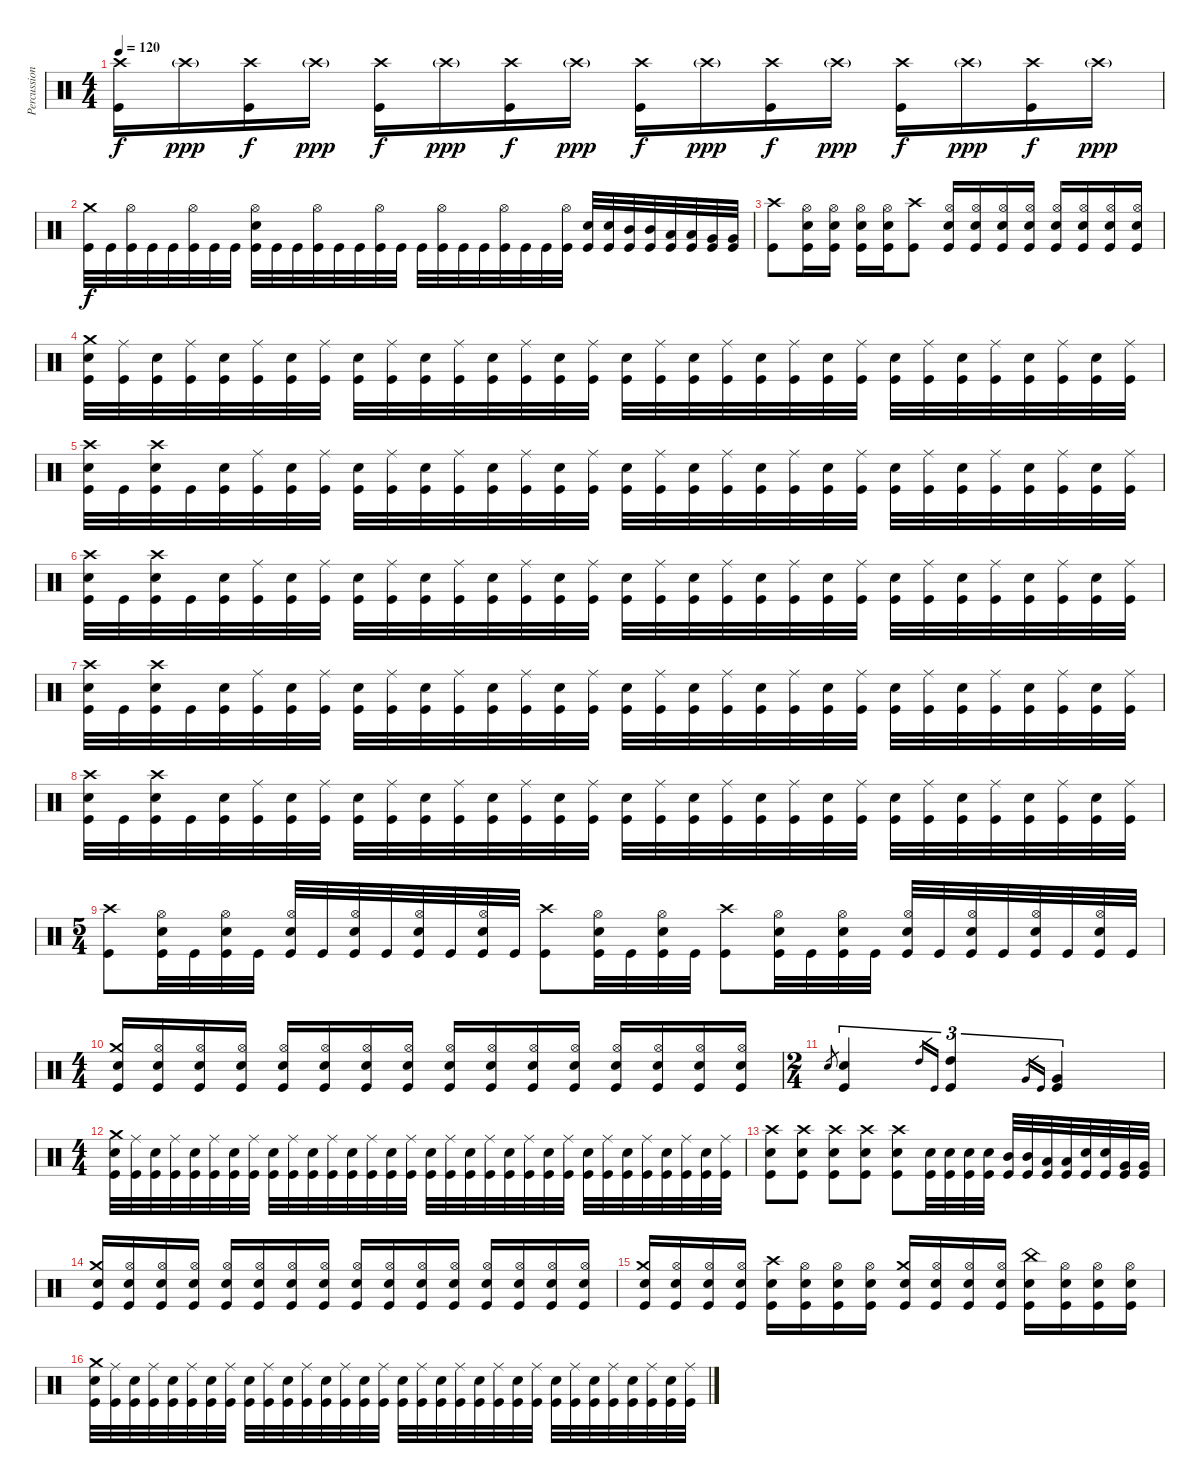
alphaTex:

\track ("Percussion" "Percussion") {instrument percussion}
\staff {score}
\articulation defaults
\ts (4 4)
\tempo 120
\clef neutral
\ks c
("Crash high (hit)" "Kick (hit)").16{dy f} "Crash high (hit)"{g}.16{dy ppp} ("Crash high (hit)" "Kick (hit)").16{dy f} "Crash high (hit)"{g}.16{dy ppp} ("Crash high (hit)" "Kick (hit)").16{dy f} "Crash high (hit)"{g}.16{dy ppp} ("Crash high (hit)" "Kick (hit)").16{dy f} "Crash high (hit)"{g}.16{dy ppp} ("Crash high (hit)" "Kick (hit)").16{dy f} "Crash high (hit)"{g}.16{dy ppp} ("Crash high (hit)" "Kick (hit)").16{dy f} "Crash high (hit)"{g}.16{dy ppp} ("Crash high (hit)" "Kick (hit)").16{dy f} "Crash high (hit)"{g}.16{dy ppp} ("Crash high (hit)" "Kick (hit)").16{dy f} "Crash high (hit)"{g}.16{dy ppp} |
("Crash medium (hit)" "Kick (hit)").32{dy f} "Kick (hit)".32 ("Hi-Hat (open)" "Kick (hit)").32 "Kick (hit)".32 "Kick (hit)".32 ("Hi-Hat (open)" "Kick (hit)").32 "Kick (hit)".32 "Kick (hit)".32 ("Hi-Hat (open)" "Electric Snare (hit)" "Kick (hit)").32 "Kick (hit)".32 "Kick (hit)".32 ("Hi-Hat (open)" "Kick (hit)").32 "Kick (hit)".32 "Kick (hit)".32 ("Hi-Hat (open)" "Kick (hit)").32 "Kick (hit)".32 "Kick (hit)".32 ("Hi-Hat (open)" "Kick (hit)").32 "Kick (hit)".32 "Kick (hit)".32 ("Hi-Hat (open)" "Kick (hit)").32 "Kick (hit)".32 "Kick (hit)".32 ("Hi-Hat (open)" "Kick (hit)").32 ("Electric Snare (hit)" "Kick (hit)").32 ("Electric Snare (hit)" "Kick (hit)").32 ("Mid Tom (hit)" "Kick (hit)").32 ("Mid Tom (hit)" "Kick (hit)").32 ("Low Tom (hit)" "Kick (hit)").32 ("Low Tom (hit)" "Kick (hit)").32 ("Very Low Tom (hit)" "Kick (hit)").32 ("Very Low Tom (hit)" "Kick (hit)").32 |
("Crash high (hit)" "Kick (hit)").8 ("Hi-Hat (open)" "Electric Snare (hit)" "Kick (hit)").16 ("Hi-Hat (open)" "Electric Snare (hit)" "Kick (hit)").16 ("Hi-Hat (open)" "Electric Snare (hit)" "Kick (hit)").16 ("Hi-Hat (open)" "Electric Snare (hit)" "Kick (hit)").16 ("Crash high (hit)" "Kick (hit)").8 ("Hi-Hat (open)" "Electric Snare (hit)" "Kick (hit)").16 ("Hi-Hat (open)" "Electric Snare (hit)" "Kick (hit)").16 ("Hi-Hat (open)" "Electric Snare (hit)" "Kick (hit)").16 ("Hi-Hat (open)" "Electric Snare (hit)" "Kick (hit)").16 ("Hi-Hat (open)" "Electric Snare (hit)" "Kick (hit)").16 ("Hi-Hat (open)" "Electric Snare (hit)" "Kick (hit)").16 ("Hi-Hat (open)" "Electric Snare (hit)" "Kick (hit)").16 ("Hi-Hat (open)" "Electric Snare (hit)" "Kick (hit)").16 |
("Crash medium (hit)" "Electric Snare (hit)" "Kick (hit)").32 ("Ride (middle)" "Kick (hit)").32 ("Electric Snare (hit)" "Kick (hit)").32 ("Ride (middle)" "Kick (hit)").32 ("Electric Snare (hit)" "Kick (hit)").32 ("Ride (middle)" "Kick (hit)").32 ("Electric Snare (hit)" "Kick (hit)").32 ("Ride (middle)" "Kick (hit)").32 ("Electric Snare (hit)" "Kick (hit)").32 ("Ride (middle)" "Kick (hit)").32 ("Electric Snare (hit)" "Kick (hit)").32 ("Ride (middle)" "Kick (hit)").32 ("Electric Snare (hit)" "Kick (hit)").32 ("Ride (middle)" "Kick (hit)").32 ("Electric Snare (hit)" "Kick (hit)").32 ("Ride (middle)" "Kick (hit)").32 ("Electric Snare (hit)" "Kick (hit)").32 ("Ride (middle)" "Kick (hit)").32 ("Electric Snare (hit)" "Kick (hit)").32 ("Ride (middle)" "Kick (hit)").32 ("Electric Snare (hit)" "Kick (hit)").32 ("Ride (middle)" "Kick (hit)").32 ("Electric Snare (hit)" "Kick (hit)").32 ("Ride (middle)" "Kick (hit)").32 ("Electric Snare (hit)" "Kick (hit)").32 ("Ride (middle)" "Kick (hit)").32 ("Electric Snare (hit)" "Kick (hit)").32 ("Ride (middle)" "Kick (hit)").32 ("Electric Snare (hit)" "Kick (hit)").32 ("Ride (middle)" "Kick (hit)").32 ("Electric Snare (hit)" "Kick (hit)").32 ("Ride (middle)" "Kick (hit)").32 |
("Crash high (hit)" "Electric Snare (hit)" "Kick (hit)").32 "Kick (hit)".32 ("Crash high (hit)" "Electric Snare (hit)" "Kick (hit)").32 "Kick (hit)".32 ("Electric Snare (hit)" "Kick (hit)").32 ("Ride (middle)" "Kick (hit)").32 ("Electric Snare (hit)" "Kick (hit)").32 ("Ride (middle)" "Kick (hit)").32 ("Electric Snare (hit)" "Kick (hit)").32 ("Ride (middle)" "Kick (hit)").32 ("Electric Snare (hit)" "Kick (hit)").32 ("Ride (middle)" "Kick (hit)").32 ("Electric Snare (hit)" "Kick (hit)").32 ("Ride (middle)" "Kick (hit)").32 ("Electric Snare (hit)" "Kick (hit)").32 ("Ride (middle)" "Kick (hit)").32 ("Electric Snare (hit)" "Kick (hit)").32 ("Ride (middle)" "Kick (hit)").32 ("Electric Snare (hit)" "Kick (hit)").32 ("Ride (middle)" "Kick (hit)").32 ("Electric Snare (hit)" "Kick (hit)").32 ("Ride (middle)" "Kick (hit)").32 ("Electric Snare (hit)" "Kick (hit)").32 ("Ride (middle)" "Kick (hit)").32 ("Electric Snare (hit)" "Kick (hit)").32 ("Ride (middle)" "Kick (hit)").32 ("Electric Snare (hit)" "Kick (hit)").32 ("Ride (middle)" "Kick (hit)").32 ("Electric Snare (hit)" "Kick (hit)").32 ("Ride (middle)" "Kick (hit)").32 ("Electric Snare (hit)" "Kick (hit)").32 ("Ride (middle)" "Kick (hit)").32 |
("Crash high (hit)" "Electric Snare (hit)" "Kick (hit)").32 "Kick (hit)".32 ("Crash high (hit)" "Electric Snare (hit)" "Kick (hit)").32 "Kick (hit)".32 ("Electric Snare (hit)" "Kick (hit)").32 ("Ride (middle)" "Kick (hit)").32 ("Electric Snare (hit)" "Kick (hit)").32 ("Ride (middle)" "Kick (hit)").32 ("Electric Snare (hit)" "Kick (hit)").32 ("Ride (middle)" "Kick (hit)").32 ("Electric Snare (hit)" "Kick (hit)").32 ("Ride (middle)" "Kick (hit)").32 ("Electric Snare (hit)" "Kick (hit)").32 ("Ride (middle)" "Kick (hit)").32 ("Electric Snare (hit)" "Kick (hit)").32 ("Ride (middle)" "Kick (hit)").32 ("Electric Snare (hit)" "Kick (hit)").32 ("Ride (middle)" "Kick (hit)").32 ("Electric Snare (hit)" "Kick (hit)").32 ("Ride (middle)" "Kick (hit)").32 ("Electric Snare (hit)" "Kick (hit)").32 ("Ride (middle)" "Kick (hit)").32 ("Electric Snare (hit)" "Kick (hit)").32 ("Ride (middle)" "Kick (hit)").32 ("Electric Snare (hit)" "Kick (hit)").32 ("Ride (middle)" "Kick (hit)").32 ("Electric Snare (hit)" "Kick (hit)").32 ("Ride (middle)" "Kick (hit)").32 ("Electric Snare (hit)" "Kick (hit)").32 ("Ride (middle)" "Kick (hit)").32 ("Electric Snare (hit)" "Kick (hit)").32 ("Ride (middle)" "Kick (hit)").32 |
("Crash high (hit)" "Electric Snare (hit)" "Kick (hit)").32 "Kick (hit)".32 ("Crash high (hit)" "Electric Snare (hit)" "Kick (hit)").32 "Kick (hit)".32 ("Electric Snare (hit)" "Kick (hit)").32 ("Ride (middle)" "Kick (hit)").32 ("Electric Snare (hit)" "Kick (hit)").32 ("Ride (middle)" "Kick (hit)").32 ("Electric Snare (hit)" "Kick (hit)").32 ("Ride (middle)" "Kick (hit)").32 ("Electric Snare (hit)" "Kick (hit)").32 ("Ride (middle)" "Kick (hit)").32 ("Electric Snare (hit)" "Kick (hit)").32 ("Ride (middle)" "Kick (hit)").32 ("Electric Snare (hit)" "Kick (hit)").32 ("Ride (middle)" "Kick (hit)").32 ("Electric Snare (hit)" "Kick (hit)").32 ("Ride (middle)" "Kick (hit)").32 ("Electric Snare (hit)" "Kick (hit)").32 ("Ride (middle)" "Kick (hit)").32 ("Electric Snare (hit)" "Kick (hit)").32 ("Ride (middle)" "Kick (hit)").32 ("Electric Snare (hit)" "Kick (hit)").32 ("Ride (middle)" "Kick (hit)").32 ("Electric Snare (hit)" "Kick (hit)").32 ("Ride (middle)" "Kick (hit)").32 ("Electric Snare (hit)" "Kick (hit)").32 ("Ride (middle)" "Kick (hit)").32 ("Electric Snare (hit)" "Kick (hit)").32 ("Ride (middle)" "Kick (hit)").32 ("Electric Snare (hit)" "Kick (hit)").32 ("Ride (middle)" "Kick (hit)").32 |
("Crash high (hit)" "Electric Snare (hit)" "Kick (hit)").32 "Kick (hit)".32 ("Crash high (hit)" "Electric Snare (hit)" "Kick (hit)").32 "Kick (hit)".32 ("Electric Snare (hit)" "Kick (hit)").32 ("Ride (middle)" "Kick (hit)").32 ("Electric Snare (hit)" "Kick (hit)").32 ("Ride (middle)" "Kick (hit)").32 ("Electric Snare (hit)" "Kick (hit)").32 ("Ride (middle)" "Kick (hit)").32 ("Electric Snare (hit)" "Kick (hit)").32 ("Ride (middle)" "Kick (hit)").32 ("Electric Snare (hit)" "Kick (hit)").32 ("Ride (middle)" "Kick (hit)").32 ("Electric Snare (hit)" "Kick (hit)").32 ("Ride (middle)" "Kick (hit)").32 ("Electric Snare (hit)" "Kick (hit)").32 ("Ride (middle)" "Kick (hit)").32 ("Electric Snare (hit)" "Kick (hit)").32 ("Ride (middle)" "Kick (hit)").32 ("Electric Snare (hit)" "Kick (hit)").32 ("Ride (middle)" "Kick (hit)").32 ("Electric Snare (hit)" "Kick (hit)").32 ("Ride (middle)" "Kick (hit)").32 ("Electric Snare (hit)" "Kick (hit)").32 ("Ride (middle)" "Kick (hit)").32 ("Electric Snare (hit)" "Kick (hit)").32 ("Ride (middle)" "Kick (hit)").32 ("Electric Snare (hit)" "Kick (hit)").32 ("Ride (middle)" "Kick (hit)").32 ("Electric Snare (hit)" "Kick (hit)").32 ("Ride (middle)" "Kick (hit)").32 |
\ts (5 4)
("Crash high (hit)" "Kick (hit)").8 ("Hi-Hat (open)" "Electric Snare (hit)" "Kick (hit)").32 "Kick (hit)".32 ("Hi-Hat (open)" "Electric Snare (hit)" "Kick (hit)").32 "Kick (hit)".32 ("Hi-Hat (open)" "Electric Snare (hit)" "Kick (hit)").32 "Kick (hit)".32 ("Hi-Hat (open)" "Electric Snare (hit)" "Kick (hit)").32 "Kick (hit)".32 ("Hi-Hat (open)" "Electric Snare (hit)" "Kick (hit)").32 "Kick (hit)".32 ("Hi-Hat (open)" "Electric Snare (hit)" "Kick (hit)").32 "Kick (hit)".32 ("Crash high (hit)" "Kick (hit)").8 ("Hi-Hat (open)" "Electric Snare (hit)" "Kick (hit)").32 "Kick (hit)".32 ("Hi-Hat (open)" "Electric Snare (hit)" "Kick (hit)").32 "Kick (hit)".32 ("Crash high (hit)" "Kick (hit)").8 ("Hi-Hat (open)" "Electric Snare (hit)" "Kick (hit)").32 "Kick (hit)".32 ("Hi-Hat (open)" "Electric Snare (hit)" "Kick (hit)").32 "Kick (hit)".32 ("Hi-Hat (open)" "Electric Snare (hit)" "Kick (hit)").32 "Kick (hit)".32 ("Hi-Hat (open)" "Electric Snare (hit)" "Kick (hit)").32 "Kick (hit)".32 ("Hi-Hat (open)" "Electric Snare (hit)" "Kick (hit)").32 "Kick (hit)".32 ("Hi-Hat (open)" "Electric Snare (hit)" "Kick (hit)").32 "Kick (hit)".32 |
\ts (4 4)
("Crash medium (hit)" "Electric Snare (hit)" "Kick (hit)").16 ("Hi-Hat (open)" "Electric Snare (hit)" "Kick (hit)").16 ("Hi-Hat (open)" "Electric Snare (hit)" "Kick (hit)").16 ("Hi-Hat (open)" "Electric Snare (hit)" "Kick (hit)").16 ("Hi-Hat (open)" "Electric Snare (hit)" "Kick (hit)").16 ("Hi-Hat (open)" "Electric Snare (hit)" "Kick (hit)").16 ("Hi-Hat (open)" "Electric Snare (hit)" "Kick (hit)").16 ("Hi-Hat (open)" "Electric Snare (hit)" "Kick (hit)").16 ("Hi-Hat (open)" "Electric Snare (hit)" "Kick (hit)").16 ("Hi-Hat (open)" "Electric Snare (hit)" "Kick (hit)").16 ("Hi-Hat (open)" "Electric Snare (hit)" "Kick (hit)").16 ("Hi-Hat (open)" "Electric Snare (hit)" "Kick (hit)").16 ("Hi-Hat (open)" "Electric Snare (hit)" "Kick (hit)").16 ("Hi-Hat (open)" "Electric Snare (hit)" "Kick (hit)").16 ("Hi-Hat (open)" "Electric Snare (hit)" "Kick (hit)").16 ("Hi-Hat (open)" "Electric Snare (hit)" "Kick (hit)").16 |
\ts (2 4)
"Electric Snare (hit)".8{gr} ("Electric Snare (hit)" "Kick (hit)").4{tu (3 2)} "High Tom (hit)".16{gr} "Kick (hit)".16{gr} ("High Tom (hit)" "Kick (hit)").4{tu (3 2)} "Very Low Tom (hit)".16{gr} "Kick (hit)".16{gr} ("Very Low Tom (hit)" "Kick (hit)").4{tu (3 2)} |
\ts (4 4)
("Crash medium (hit)" "Electric Snare (hit)" "Kick (hit)").32 ("Ride (middle)" "Kick (hit)").32 ("Electric Snare (hit)" "Kick (hit)").32 ("Ride (middle)" "Kick (hit)").32 ("Electric Snare (hit)" "Kick (hit)").32 ("Ride (middle)" "Kick (hit)").32 ("Electric Snare (hit)" "Kick (hit)").32 ("Ride (middle)" "Kick (hit)").32 ("Electric Snare (hit)" "Kick (hit)").32 ("Ride (middle)" "Kick (hit)").32 ("Electric Snare (hit)" "Kick (hit)").32 ("Ride (middle)" "Kick (hit)").32 ("Electric Snare (hit)" "Kick (hit)").32 ("Ride (middle)" "Kick (hit)").32 ("Electric Snare (hit)" "Kick (hit)").32 ("Ride (middle)" "Kick (hit)").32 ("Electric Snare (hit)" "Kick (hit)").32 ("Ride (middle)" "Kick (hit)").32 ("Electric Snare (hit)" "Kick (hit)").32 ("Ride (middle)" "Kick (hit)").32 ("Electric Snare (hit)" "Kick (hit)").32 ("Ride (middle)" "Kick (hit)").32 ("Electric Snare (hit)" "Kick (hit)").32 ("Ride (middle)" "Kick (hit)").32 ("Electric Snare (hit)" "Kick (hit)").32 ("Ride (middle)" "Kick (hit)").32 ("Electric Snare (hit)" "Kick (hit)").32 ("Ride (middle)" "Kick (hit)").32 ("Electric Snare (hit)" "Kick (hit)").32 ("Ride (middle)" "Kick (hit)").32 ("Electric Snare (hit)" "Kick (hit)").32 ("Ride (middle)" "Kick (hit)").32 |
("Crash high (hit)" "Electric Snare (hit)" "Kick (hit)").8 ("Crash high (hit)" "Electric Snare (hit)" "Kick (hit)").8 ("Crash high (hit)" "Electric Snare (hit)" "Kick (hit)").8 ("Crash high (hit)" "Electric Snare (hit)" "Kick (hit)").8 ("Crash high (hit)" "Electric Snare (hit)" "Kick (hit)").8 ("Electric Snare (hit)" "Kick (hit)").32 ("Electric Snare (hit)" "Kick (hit)").32 ("Electric Snare (hit)" "Kick (hit)").32 ("Electric Snare (hit)" "Kick (hit)").32 ("Mid Tom (hit)" "Kick (hit)").32 ("Mid Tom (hit)" "Kick (hit)").32 ("Low Tom (hit)" "Kick (hit)").32 ("Low Tom (hit)" "Kick (hit)").32 ("Electric Snare (hit)" "Kick (hit)").32 ("Electric Snare (hit)" "Kick (hit)").32 ("Very Low Tom (hit)" "Kick (hit)").32 ("Very Low Tom (hit)" "Kick (hit)").32 |
("Crash medium (hit)" "Electric Snare (hit)" "Kick (hit)").16 ("Hi-Hat (open)" "Electric Snare (hit)" "Kick (hit)").16 ("Hi-Hat (open)" "Electric Snare (hit)" "Kick (hit)").16 ("Hi-Hat (open)" "Electric Snare (hit)" "Kick (hit)").16 ("Hi-Hat (open)" "Electric Snare (hit)" "Kick (hit)").16 ("Hi-Hat (open)" "Electric Snare (hit)" "Kick (hit)").16 ("Hi-Hat (open)" "Electric Snare (hit)" "Kick (hit)").16 ("Hi-Hat (open)" "Electric Snare (hit)" "Kick (hit)").16 ("Hi-Hat (open)" "Electric Snare (hit)" "Kick (hit)").16 ("Hi-Hat (open)" "Electric Snare (hit)" "Kick (hit)").16 ("Hi-Hat (open)" "Electric Snare (hit)" "Kick (hit)").16 ("Hi-Hat (open)" "Electric Snare (hit)" "Kick (hit)").16 ("Hi-Hat (open)" "Electric Snare (hit)" "Kick (hit)").16 ("Hi-Hat (open)" "Electric Snare (hit)" "Kick (hit)").16 ("Hi-Hat (open)" "Electric Snare (hit)" "Kick (hit)").16 ("Hi-Hat (open)" "Electric Snare (hit)" "Kick (hit)").16 |
("Crash medium (hit)" "Electric Snare (hit)" "Kick (hit)").16 ("Hi-Hat (open)" "Electric Snare (hit)" "Kick (hit)").16 ("Hi-Hat (open)" "Electric Snare (hit)" "Kick (hit)").16 ("Hi-Hat (open)" "Electric Snare (hit)" "Kick (hit)").16 ("Crash high (hit)" "Electric Snare (hit)" "Kick (hit)").16 ("Hi-Hat (open)" "Electric Snare (hit)" "Kick (hit)").16 ("Hi-Hat (open)" "Electric Snare (hit)" "Kick (hit)").16 ("Hi-Hat (open)" "Electric Snare (hit)" "Kick (hit)").16 ("Crash medium (hit)" "Electric Snare (hit)" "Kick (hit)").16 ("Hi-Hat (open)" "Electric Snare (hit)" "Kick (hit)").16 ("Hi-Hat (open)" "Electric Snare (hit)" "Kick (hit)").16 ("Hi-Hat (open)" "Electric Snare (hit)" "Kick (hit)").16 ("China (hit)" "Electric Snare (hit)" "Kick (hit)").16 ("Hi-Hat (open)" "Electric Snare (hit)" "Kick (hit)").16 ("Hi-Hat (open)" "Electric Snare (hit)" "Kick (hit)").16 ("Hi-Hat (open)" "Electric Snare (hit)" "Kick (hit)").16 |
("Crash medium (hit)" "Electric Snare (hit)" "Kick (hit)").32 ("Ride (middle)" "Kick (hit)").32 ("Electric Snare (hit)" "Kick (hit)").32 ("Ride (middle)" "Kick (hit)").32 ("Electric Snare (hit)" "Kick (hit)").32 ("Ride (middle)" "Kick (hit)").32 ("Electric Snare (hit)" "Kick (hit)").32 ("Ride (middle)" "Kick (hit)").32 ("Electric Snare (hit)" "Kick (hit)").32 ("Ride (middle)" "Kick (hit)").32 ("Electric Snare (hit)" "Kick (hit)").32 ("Ride (middle)" "Kick (hit)").32 ("Electric Snare (hit)" "Kick (hit)").32 ("Ride (middle)" "Kick (hit)").32 ("Electric Snare (hit)" "Kick (hit)").32 ("Ride (middle)" "Kick (hit)").32 ("Electric Snare (hit)" "Kick (hit)").32 ("Ride (middle)" "Kick (hit)").32 ("Electric Snare (hit)" "Kick (hit)").32 ("Ride (middle)" "Kick (hit)").32 ("Electric Snare (hit)" "Kick (hit)").32 ("Ride (middle)" "Kick (hit)").32 ("Electric Snare (hit)" "Kick (hit)").32 ("Ride (middle)" "Kick (hit)").32 ("Electric Snare (hit)" "Kick (hit)").32 ("Ride (middle)" "Kick (hit)").32 ("Electric Snare (hit)" "Kick (hit)").32 ("Ride (middle)" "Kick (hit)").32 ("Electric Snare (hit)" "Kick (hit)").32 ("Ride (middle)" "Kick (hit)").32 ("Electric Snare (hit)" "Kick (hit)").32 ("Ride (middle)" "Kick (hit)").32
